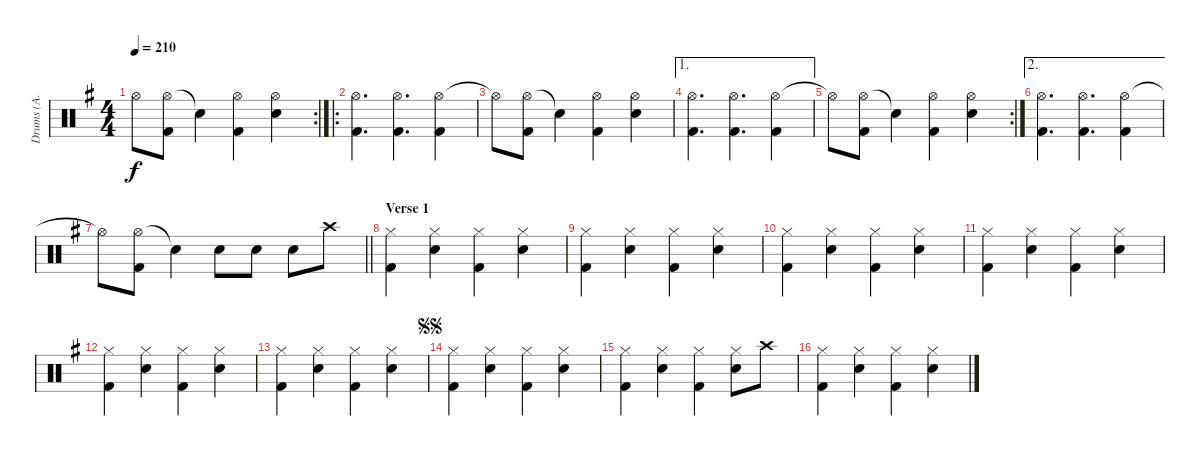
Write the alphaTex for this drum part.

\track ("Drums (А. Манякин)" "Drums (А. ") {instrument percussion}
\staff {score}
\articulation defaults
\rc 2
\ts (4 4)
\tempo 210
\clef neutral
\ks g "Hi-Hat (open)"{t}.8{dy f}
("Hi-Hat (open)" "Kick (hit) 2").8 "Snare (hit)"{t}.4 ("Hi-Hat (open)" "Kick (hit) 2").4 ("Hi-Hat (open)" "Snare (hit) 2").4 |
\ro
("Hi-Hat (open)" "Kick (hit) 2").4{d} ("Hi-Hat (open)" "Kick (hit) 2").4{d} ("Hi-Hat (open)" "Kick (hit) 2").4 |
"Hi-Hat (open)"{t}.8 ("Hi-Hat (open)" "Kick (hit) 2").8 "Snare (hit)"{t}.4 ("Hi-Hat (open)" "Kick (hit) 2").4 ("Hi-Hat (open)" "Snare (hit) 2").4 |
\ae 1
("Hi-Hat (open)" "Kick (hit) 2").4{d} ("Hi-Hat (open)" "Kick (hit) 2").4{d} ("Hi-Hat (open)" "Kick (hit) 2").4 |
\rc 2 "Hi-Hat (open)"{t}.8
("Hi-Hat (open)" "Kick (hit) 2").8 "Snare (hit)"{t}.4 ("Hi-Hat (open)" "Kick (hit) 2").4 ("Hi-Hat (open)" "Snare (hit) 2").4 |
\ae 2
("Hi-Hat (open)" "Kick (hit) 2").4{d} ("Hi-Hat (open)" "Kick (hit) 2").4{d} ("Hi-Hat (open)" "Kick (hit) 2").4 |
\barLineRight lightlight "Hi-Hat (open)"{t}.8
("Hi-Hat (open)" "Kick (hit) 2").8 "Snare (hit)"{t}.4 "Snare (hit) 2".8 "Snare (hit) 2".8 "Snare (hit) 2".8 "Crash high (hit)".8 |
\section ("" "Verse 1")
("Hi-Hat (closed)" "Kick (hit) 2").4 ("Hi-Hat (closed)" "Snare (hit) 2").4 ("Hi-Hat (closed)" "Kick (hit) 2").4 ("Hi-Hat (closed)" "Snare (hit) 2").4 |
("Hi-Hat (closed)" "Kick (hit) 2").4 ("Hi-Hat (closed)" "Snare (hit) 2").4 ("Hi-Hat (closed)" "Kick (hit) 2").4 ("Hi-Hat (closed)" "Snare (hit) 2").4 |
("Hi-Hat (closed)" "Kick (hit) 2").4 ("Hi-Hat (closed)" "Snare (hit) 2").4 ("Hi-Hat (closed)" "Kick (hit) 2").4 ("Hi-Hat (closed)" "Snare (hit) 2").4 |
("Hi-Hat (closed)" "Kick (hit) 2").4 ("Hi-Hat (closed)" "Snare (hit) 2").4 ("Hi-Hat (closed)" "Kick (hit) 2").4 ("Hi-Hat (closed)" "Snare (hit) 2").4 |
("Hi-Hat (closed)" "Kick (hit) 2").4 ("Hi-Hat (closed)" "Snare (hit) 2").4 ("Hi-Hat (closed)" "Kick (hit) 2").4 ("Hi-Hat (closed)" "Snare (hit) 2").4 |
("Hi-Hat (closed)" "Kick (hit) 2").4 ("Hi-Hat (closed)" "Snare (hit) 2").4 ("Hi-Hat (closed)" "Kick (hit) 2").4 ("Hi-Hat (closed)" "Snare (hit) 2").4 |
\jump segnosegno
("Hi-Hat (closed)" "Kick (hit) 2").4 ("Hi-Hat (closed)" "Snare (hit) 2").4 ("Hi-Hat (closed)" "Kick (hit) 2").4 ("Hi-Hat (closed)" "Snare (hit) 2").4 |
("Hi-Hat (closed)" "Kick (hit) 2").4 ("Hi-Hat (closed)" "Snare (hit) 2").4 ("Hi-Hat (closed)" "Kick (hit) 2").4 ("Hi-Hat (closed)" "Snare (hit) 2").8 "Crash high (hit)".8 |
("Hi-Hat (closed)" "Kick (hit) 2").4 ("Hi-Hat (closed)" "Snare (hit) 2").4 ("Hi-Hat (closed)" "Kick (hit) 2").4 ("Hi-Hat (closed)" "Snare (hit) 2").4
